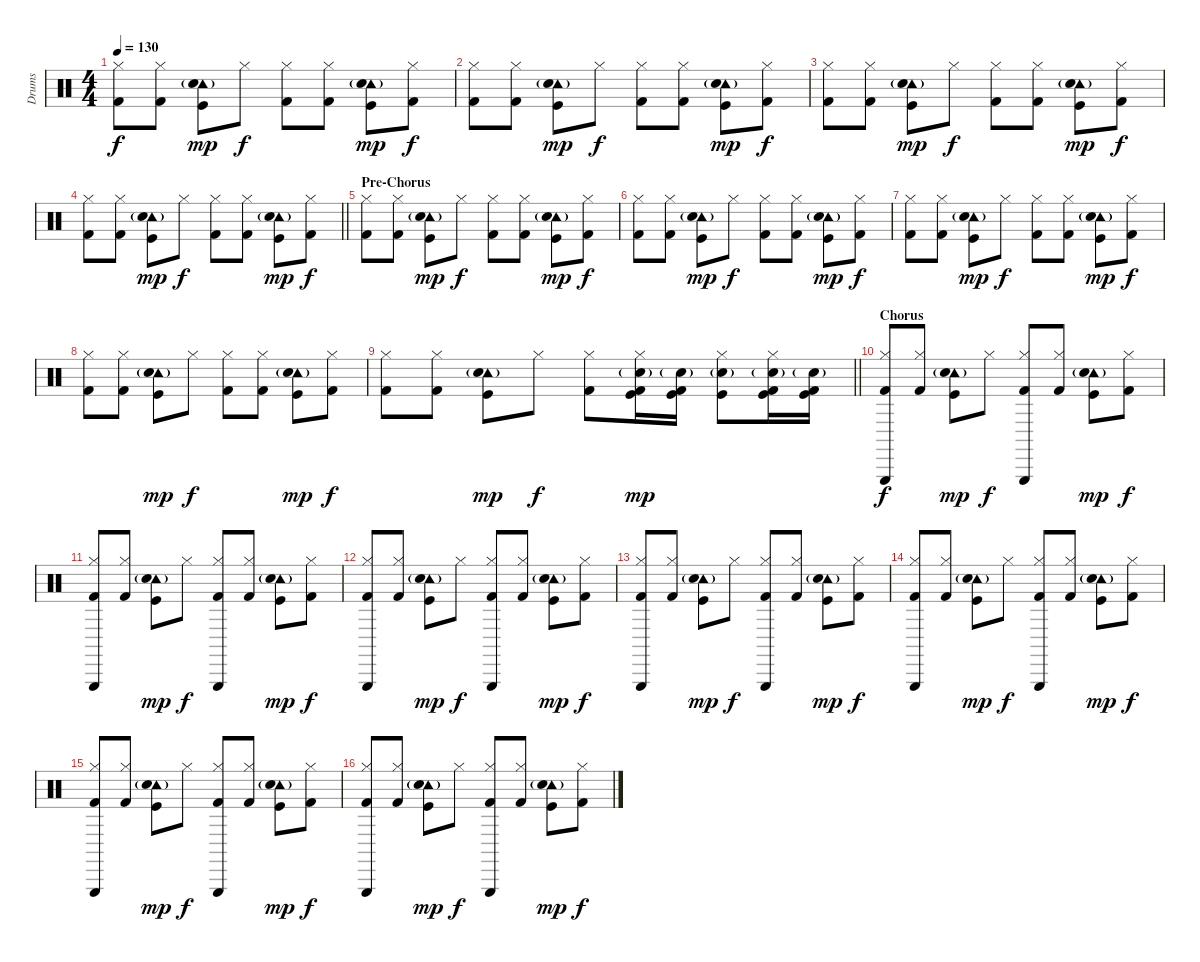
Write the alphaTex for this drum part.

\track ("Drums" "Drums") {instrument percussion}
\staff {score}
\articulation defaults
\ts (4 4)
\tempo 130
\clef neutral
\ks c
("Hi-Hat (closed)" "Kick (hit) 2").8{dy f} ("Hi-Hat (closed)" "Kick (hit) 2").8 ("Tambourine (hit)" "Snare (hit) 2"{g} "Kick (hit)").8{dy mp} "Hi-Hat (closed)".8{dy f} ("Hi-Hat (closed)" "Kick (hit) 2").8 ("Hi-Hat (closed)" "Kick (hit) 2").8 ("Tambourine (hit)" "Snare (hit) 2"{g} "Kick (hit)").8{dy mp} ("Hi-Hat (closed)" "Kick (hit) 2").8{dy f} |
("Hi-Hat (closed)" "Kick (hit) 2").8 ("Hi-Hat (closed)" "Kick (hit) 2").8 ("Tambourine (hit)" "Snare (hit) 2"{g} "Kick (hit)").8{dy mp} "Hi-Hat (closed)".8{dy f} ("Hi-Hat (closed)" "Kick (hit) 2").8 ("Hi-Hat (closed)" "Kick (hit) 2").8 ("Tambourine (hit)" "Snare (hit) 2"{g} "Kick (hit)").8{dy mp} ("Hi-Hat (closed)" "Kick (hit) 2").8{dy f} |
("Hi-Hat (closed)" "Kick (hit) 2").8 ("Hi-Hat (closed)" "Kick (hit) 2").8 ("Tambourine (hit)" "Snare (hit) 2"{g} "Kick (hit)").8{dy mp} "Hi-Hat (closed)".8{dy f} ("Hi-Hat (closed)" "Kick (hit) 2").8 ("Hi-Hat (closed)" "Kick (hit) 2").8 ("Tambourine (hit)" "Snare (hit) 2"{g} "Kick (hit)").8{dy mp} ("Hi-Hat (closed)" "Kick (hit) 2").8{dy f} |
\barLineRight lightlight
("Hi-Hat (closed)" "Kick (hit) 2").8 ("Hi-Hat (closed)" "Kick (hit) 2").8 ("Tambourine (hit)" "Snare (hit) 2"{g} "Kick (hit)").8{dy mp} "Hi-Hat (closed)".8{dy f} ("Hi-Hat (closed)" "Kick (hit) 2").8 ("Hi-Hat (closed)" "Kick (hit) 2").8 ("Tambourine (hit)" "Snare (hit) 2"{g} "Kick (hit)").8{dy mp} ("Hi-Hat (closed)" "Kick (hit) 2").8{dy f} |
\section ("" "Pre-Chorus")
("Hi-Hat (closed)" "Kick (hit) 2").8 ("Hi-Hat (closed)" "Kick (hit) 2").8 ("Tambourine (hit)" "Snare (hit) 2"{g} "Kick (hit)").8{dy mp} "Hi-Hat (closed)".8{dy f} ("Hi-Hat (closed)" "Kick (hit) 2").8 ("Hi-Hat (closed)" "Kick (hit) 2").8 ("Tambourine (hit)" "Snare (hit) 2"{g} "Kick (hit)").8{dy mp} ("Hi-Hat (closed)" "Kick (hit) 2").8{dy f} |
("Hi-Hat (closed)" "Kick (hit) 2").8 ("Hi-Hat (closed)" "Kick (hit) 2").8 ("Tambourine (hit)" "Snare (hit) 2"{g} "Kick (hit)").8{dy mp} "Hi-Hat (closed)".8{dy f} ("Hi-Hat (closed)" "Kick (hit) 2").8 ("Hi-Hat (closed)" "Kick (hit) 2").8 ("Tambourine (hit)" "Snare (hit) 2"{g} "Kick (hit)").8{dy mp} ("Hi-Hat (closed)" "Kick (hit) 2").8{dy f} |
("Hi-Hat (closed)" "Kick (hit) 2").8 ("Hi-Hat (closed)" "Kick (hit) 2").8 ("Tambourine (hit)" "Snare (hit) 2"{g} "Kick (hit)").8{dy mp} "Hi-Hat (closed)".8{dy f} ("Hi-Hat (closed)" "Kick (hit) 2").8 ("Hi-Hat (closed)" "Kick (hit) 2").8 ("Tambourine (hit)" "Snare (hit) 2"{g} "Kick (hit)").8{dy mp} ("Hi-Hat (closed)" "Kick (hit) 2").8{dy f} |
("Hi-Hat (closed)" "Kick (hit) 2").8 ("Hi-Hat (closed)" "Kick (hit) 2").8 ("Tambourine (hit)" "Snare (hit) 2"{g} "Kick (hit)").8{dy mp} "Hi-Hat (closed)".8{dy f} ("Hi-Hat (closed)" "Kick (hit) 2").8 ("Hi-Hat (closed)" "Kick (hit) 2").8 ("Tambourine (hit)" "Snare (hit) 2"{g} "Kick (hit)").8{dy mp} ("Hi-Hat (closed)" "Kick (hit) 2").8{dy f} |
\barLineRight lightlight
("Hi-Hat (closed)" "Kick (hit) 2").8 ("Hi-Hat (closed)" "Kick (hit) 2").8 ("Tambourine (hit)" "Snare (hit) 2"{g} "Kick (hit)").8{dy mp} "Hi-Hat (closed)".8{dy f} ("Hi-Hat (closed)" "Kick (hit) 2").8 ("Hi-Hat (closed)" "Snare (hit) 2"{g} "Kick (hit)" "Kick (hit) 2").16{dy mp} ("Snare (hit) 2"{g} "Kick (hit)" "Kick (hit) 2").16 ("Hi-Hat (closed)" "Snare (hit) 2"{g} "Kick (hit)").8 ("Hi-Hat (closed)" "Snare (hit) 2"{g} "Kick (hit)" "Kick (hit) 2").16 ("Snare (hit) 2"{g} "Kick (hit)" "Kick (hit) 2").16 |
\section ("" "Chorus")
("Hi-Hat (closed)" "Triangle (hit)" "Kick (hit) 2").8{dy f} ("Hi-Hat (closed)" "Kick (hit) 2").8 ("Tambourine (hit)" "Snare (hit) 2"{g} "Kick (hit)").8{dy mp} "Hi-Hat (closed)".8{dy f} ("Hi-Hat (closed)" "Triangle (hit)" "Kick (hit) 2").8 ("Hi-Hat (closed)" "Kick (hit) 2").8 ("Tambourine (hit)" "Snare (hit) 2"{g} "Kick (hit)").8{dy mp} ("Hi-Hat (closed)" "Kick (hit) 2").8{dy f} |
("Hi-Hat (closed)" "Triangle (hit)" "Kick (hit) 2").8 ("Hi-Hat (closed)" "Kick (hit) 2").8 ("Tambourine (hit)" "Snare (hit) 2"{g} "Kick (hit)").8{dy mp} "Hi-Hat (closed)".8{dy f} ("Hi-Hat (closed)" "Triangle (hit)" "Kick (hit) 2").8 ("Hi-Hat (closed)" "Kick (hit) 2").8 ("Tambourine (hit)" "Snare (hit) 2"{g} "Kick (hit)").8{dy mp} ("Hi-Hat (closed)" "Kick (hit) 2").8{dy f} |
("Hi-Hat (closed)" "Triangle (hit)" "Kick (hit) 2").8 ("Hi-Hat (closed)" "Kick (hit) 2").8 ("Tambourine (hit)" "Snare (hit) 2"{g} "Kick (hit)").8{dy mp} "Hi-Hat (closed)".8{dy f} ("Hi-Hat (closed)" "Triangle (hit)" "Kick (hit) 2").8 ("Hi-Hat (closed)" "Kick (hit) 2").8 ("Tambourine (hit)" "Snare (hit) 2"{g} "Kick (hit)").8{dy mp} ("Hi-Hat (closed)" "Kick (hit) 2").8{dy f} |
("Hi-Hat (closed)" "Triangle (hit)" "Kick (hit) 2").8 ("Hi-Hat (closed)" "Kick (hit) 2").8 ("Tambourine (hit)" "Snare (hit) 2"{g} "Kick (hit)").8{dy mp} "Hi-Hat (closed)".8{dy f} ("Hi-Hat (closed)" "Triangle (hit)" "Kick (hit) 2").8 ("Hi-Hat (closed)" "Kick (hit) 2").8 ("Tambourine (hit)" "Snare (hit) 2"{g} "Kick (hit)").8{dy mp} ("Hi-Hat (closed)" "Kick (hit) 2").8{dy f} |
("Hi-Hat (closed)" "Triangle (hit)" "Kick (hit) 2").8 ("Hi-Hat (closed)" "Kick (hit) 2").8 ("Tambourine (hit)" "Snare (hit) 2"{g} "Kick (hit)").8{dy mp} "Hi-Hat (closed)".8{dy f} ("Hi-Hat (closed)" "Triangle (hit)" "Kick (hit) 2").8 ("Hi-Hat (closed)" "Kick (hit) 2").8 ("Tambourine (hit)" "Snare (hit) 2"{g} "Kick (hit)").8{dy mp} ("Hi-Hat (closed)" "Kick (hit) 2").8{dy f} |
("Hi-Hat (closed)" "Triangle (hit)" "Kick (hit) 2").8 ("Hi-Hat (closed)" "Kick (hit) 2").8 ("Tambourine (hit)" "Snare (hit) 2"{g} "Kick (hit)").8{dy mp} "Hi-Hat (closed)".8{dy f} ("Hi-Hat (closed)" "Triangle (hit)" "Kick (hit) 2").8 ("Hi-Hat (closed)" "Kick (hit) 2").8 ("Tambourine (hit)" "Snare (hit) 2"{g} "Kick (hit)").8{dy mp} ("Hi-Hat (closed)" "Kick (hit) 2").8{dy f} |
("Hi-Hat (closed)" "Triangle (hit)" "Kick (hit) 2").8 ("Hi-Hat (closed)" "Kick (hit) 2").8 ("Tambourine (hit)" "Snare (hit) 2"{g} "Kick (hit)").8{dy mp} "Hi-Hat (closed)".8{dy f} ("Hi-Hat (closed)" "Triangle (hit)" "Kick (hit) 2").8 ("Hi-Hat (closed)" "Kick (hit) 2").8 ("Tambourine (hit)" "Snare (hit) 2"{g} "Kick (hit)").8{dy mp} ("Hi-Hat (closed)" "Kick (hit) 2").8{dy f}
